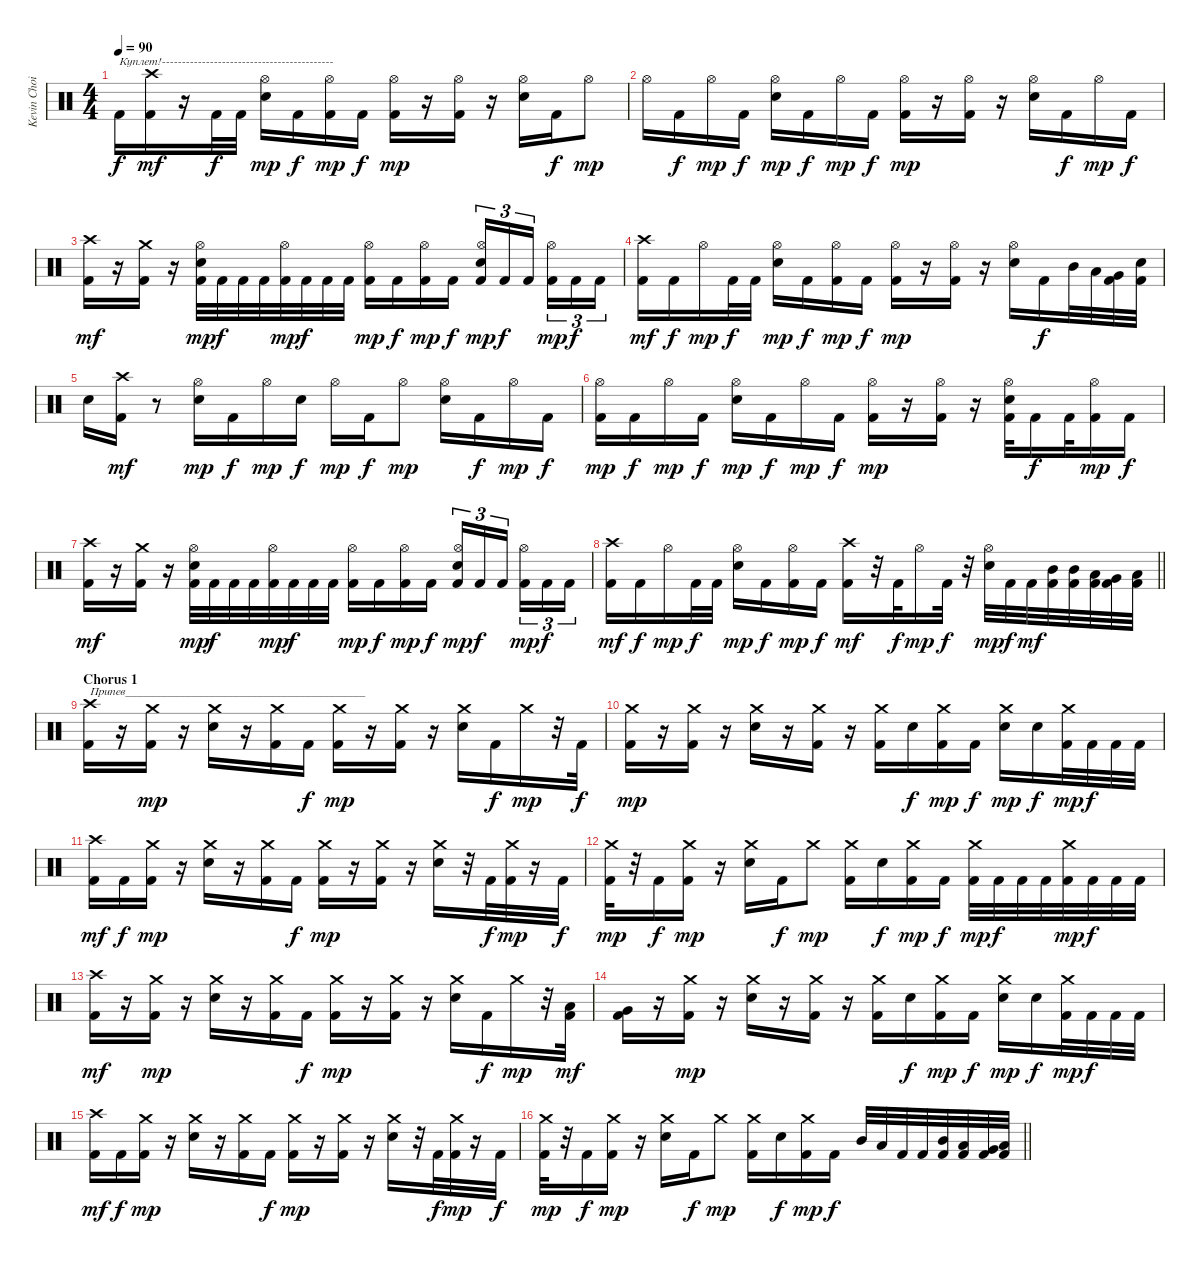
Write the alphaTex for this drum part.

\track ("Kevin Choiral" "Kevin Choi") {instrument percussion}
\staff
\articulation defaults
\ts (4 4)
\tempo 90
\clef neutral
\ks c "Kick (hit) 2".16{txt "Куплет!-------------------------------------------" dy f}
("Crash high (hit)" "Kick (hit) 2").16{dy mf} r.16 "Kick (hit) 2".32{dy f} "Kick (hit) 2".32 ("Hi-Hat (open)" "Electric Snare (hit)").16{dy mp} "Kick (hit) 2".16{dy f} ("Hi-Hat (open)" "Kick (hit) 2").16{dy mp} "Kick (hit) 2".16{dy f} ("Hi-Hat (open)" "Kick (hit) 2").16{dy mp} r.16 ("Hi-Hat (open)" "Kick (hit) 2").16 r.16 ("Hi-Hat (open)" "Electric Snare (hit)").16 "Kick (hit) 2".16{dy f} "Hi-Hat (open)".8{dy mp} |
"Hi-Hat (open)".16 "Kick (hit) 2".16{dy f} "Hi-Hat (open)".16{dy mp} "Kick (hit) 2".16{dy f} ("Hi-Hat (open)" "Electric Snare (hit)").16{dy mp} "Kick (hit) 2".16{dy f} "Hi-Hat (open)".16{dy mp} "Kick (hit) 2".16{dy f} ("Hi-Hat (open)" "Kick (hit) 2").16{dy mp} r.16 ("Hi-Hat (open)" "Kick (hit) 2").16 r.16 ("Hi-Hat (open)" "Electric Snare (hit)").16 "Kick (hit) 2".16{dy f} "Hi-Hat (open)".16{dy mp} "Kick (hit) 2".16{dy f} |
("Crash high (hit)" "Kick (hit) 2").16{dy mf} r.16 ("Crash medium (hit)" "Kick (hit) 2").16 r.16 ("Hi-Hat (open)" "Electric Snare (hit)" "Kick (hit) 2").32{dy mp} "Kick (hit) 2".32{dy f} "Kick (hit) 2".32 "Kick (hit) 2".32 ("Hi-Hat (open)" "Kick (hit) 2").32{dy mp} "Kick (hit) 2".32{dy f} "Kick (hit) 2".32 "Kick (hit) 2".32 ("Hi-Hat (open)" "Kick (hit) 2").16{dy mp} "Kick (hit) 2".16{dy f} ("Hi-Hat (open)" "Kick (hit) 2").16{dy mp} "Kick (hit) 2".16{dy f} ("Hi-Hat (open)" "Electric Snare (hit)" "Kick (hit) 2").16{tu (3 2) dy mp} "Kick (hit) 2".16{tu (3 2) dy f} "Kick (hit) 2".16{tu (3 2) beam splitsecondary} ("Hi-Hat (open)" "Kick (hit) 2").16{tu (3 2) dy mp} "Kick (hit) 2".16{tu (3 2) dy f} "Kick (hit) 2".16{tu (3 2)} |
("Crash high (hit)" "Kick (hit) 2").16{dy mf} "Kick (hit) 2".16{dy f} "Hi-Hat (open)".16{dy mp} "Kick (hit) 2".32{dy f} "Kick (hit) 2".32 ("Hi-Hat (open)" "Electric Snare (hit)").16{dy mp} "Kick (hit) 2".16{dy f} ("Hi-Hat (open)" "Kick (hit) 2").16{dy mp} "Kick (hit) 2".16{dy f} ("Hi-Hat (open)" "Kick (hit) 2").16{dy mp} r.16 ("Hi-Hat (open)" "Kick (hit) 2").16 r.16 ("Hi-Hat (open)" "Electric Snare (hit)").16 "Kick (hit) 2".16{dy f} "Mid Tom (hit)".32 "Low Tom (hit)".32 ("Very Low Tom (hit)" "Kick (hit) 2").32 ("Electric Snare (hit)" "Kick (hit) 2").32 |
"Electric Snare (hit)".16 ("Crash high (hit)" "Kick (hit) 2").16{dy mf} r.8 ("Hi-Hat (open)" "Electric Snare (hit)").16{dy mp} "Kick (hit) 2".16{dy f} "Hi-Hat (open)".16{dy mp} "Electric Snare (hit)".16{dy f} "Hi-Hat (open)".16{dy mp} "Kick (hit) 2".16{dy f} "Hi-Hat (open)".8{dy mp} ("Hi-Hat (open)" "Electric Snare (hit)").16 "Kick (hit) 2".16{dy f} "Hi-Hat (open)".16{dy mp} "Kick (hit) 2".16{dy f} |
("Hi-Hat (open)" "Kick (hit) 2").16{dy mp} "Kick (hit) 2".16{dy f} "Hi-Hat (open)".16{dy mp} "Kick (hit) 2".16{dy f} ("Hi-Hat (open)" "Electric Snare (hit)").16{dy mp} "Kick (hit) 2".16{dy f} "Hi-Hat (open)".16{dy mp} "Kick (hit) 2".16{dy f} ("Hi-Hat (open)" "Kick (hit) 2").16{dy mp} r.16 ("Hi-Hat (open)" "Kick (hit) 2").16 r.16 ("Hi-Hat (open)" "Electric Snare (hit)" "Kick (hit) 2").32 "Kick (hit) 2".16{dy f} "Kick (hit) 2".32 ("Hi-Hat (open)" "Kick (hit) 2").16{dy mp} "Kick (hit) 2".16{dy f} |
("Crash high (hit)" "Kick (hit) 2").16{dy mf} r.16 ("Crash medium (hit)" "Kick (hit) 2").16 r.16 ("Hi-Hat (open)" "Electric Snare (hit)" "Kick (hit) 2").32{dy mp} "Kick (hit) 2".32{dy f} "Kick (hit) 2".32 "Kick (hit) 2".32 ("Hi-Hat (open)" "Kick (hit) 2").32{dy mp} "Kick (hit) 2".32{dy f} "Kick (hit) 2".32 "Kick (hit) 2".32 ("Hi-Hat (open)" "Kick (hit) 2").16{dy mp} "Kick (hit) 2".16{dy f} ("Hi-Hat (open)" "Kick (hit) 2").16{dy mp} "Kick (hit) 2".16{dy f} ("Hi-Hat (open)" "Electric Snare (hit)" "Kick (hit) 2").16{tu (3 2) dy mp} "Kick (hit) 2".16{tu (3 2) dy f} "Kick (hit) 2".16{tu (3 2) beam splitsecondary} ("Hi-Hat (open)" "Kick (hit) 2").16{tu (3 2) dy mp} "Kick (hit) 2".16{tu (3 2) dy f} "Kick (hit) 2".16{tu (3 2)} |
\barLineRight lightlight
("Crash high (hit)" "Kick (hit) 2").16{dy mf} "Kick (hit) 2".16{dy f} "Hi-Hat (open)".16{dy mp} "Kick (hit) 2".32{dy f} "Kick (hit) 2".32 ("Hi-Hat (open)" "Electric Snare (hit)").16{dy mp} "Kick (hit) 2".16{dy f} ("Hi-Hat (open)" "Kick (hit) 2").16{dy mp} "Kick (hit) 2".16{dy f} ("Crash high (hit)" "Kick (hit) 2").16{dy mf} r.32 "Kick (hit) 2".32{dy f} "Hi-Hat (open)".16{dy mp} "Kick (hit) 2".32{dy f} r.32 ("Hi-Hat (open)" "Electric Snare (hit)").32{dy mp} "Kick (hit) 2".32{dy f} "Kick (hit) 2".32{dy mf} ("Mid Tom (hit)" "Kick (hit) 2").32 ("Mid Tom (hit)" "Kick (hit) 2").32 ("Low Tom (hit)" "Kick (hit) 2").32 ("Very Low Tom (hit)" "Kick (hit) 2").32 ("Low Floor Tom (hit)" "Kick (hit) 2").32 |
\section ("" "Chorus 1")
("Crash high (hit)" "Kick (hit) 2").16{txt "Припев________________________________________"} r.16 ("Crash medium (hit)" "Kick (hit) 2").16{dy mp} r.16 ("Crash medium (hit)" "Electric Snare (hit)").16 r.16 ("Crash medium (hit)" "Kick (hit) 2").16 "Kick (hit) 2".16{dy f} ("Crash medium (hit)" "Kick (hit) 2").16{dy mp} r.16 ("Crash medium (hit)" "Kick (hit) 2").16 r.16 ("Crash medium (hit)" "Electric Snare (hit)").16 "Kick (hit) 2".16{dy f} "Crash medium (hit)".16{dy mp} r.32 "Kick (hit) 2".32{dy f} |
("Crash medium (hit)" "Kick (hit) 2").16{dy mp} r.16 ("Crash medium (hit)" "Kick (hit) 2").16 r.16 ("Crash medium (hit)" "Electric Snare (hit)").16 r.16 ("Crash medium (hit)" "Kick (hit) 2").16 r.16 ("Crash medium (hit)" "Kick (hit) 2").16 "Electric Snare (hit)".16{dy f} ("Crash medium (hit)" "Kick (hit) 2").16{dy mp} "Kick (hit) 2".16{dy f} ("Crash medium (hit)" "Electric Snare (hit)").16{dy mp} "Electric Snare (hit)".16{dy f} ("Crash medium (hit)" "Kick (hit) 2").32{dy mp} "Kick (hit) 2".32{dy f} "Kick (hit) 2".32 "Kick (hit) 2".32 |
("Crash high (hit)" "Kick (hit) 2").16{dy mf} "Kick (hit) 2".16{dy f} ("Crash medium (hit)" "Kick (hit) 2").16{dy mp} r.16 ("Crash medium (hit)" "Electric Snare (hit)").16 r.16 ("Crash medium (hit)" "Kick (hit) 2").16 "Kick (hit) 2".16{dy f} ("Crash medium (hit)" "Kick (hit) 2").16{dy mp} r.16 ("Crash medium (hit)" "Kick (hit) 2").16 r.16 ("Crash medium (hit)" "Electric Snare (hit)").16 r.32 "Kick (hit) 2".32{dy f} ("Crash medium (hit)" "Kick (hit) 2").32{dy mp} r.16 "Kick (hit) 2".32{dy f} |
("Crash medium (hit)" "Kick (hit) 2").32{dy mp} r.32 "Kick (hit) 2".16{dy f} ("Crash medium (hit)" "Kick (hit) 2").16{dy mp} r.16 ("Crash medium (hit)" "Electric Snare (hit)").16 "Kick (hit) 2".16{dy f} "Crash medium (hit)".8{dy mp} ("Crash medium (hit)" "Kick (hit) 2").16 "Electric Snare (hit)".16{dy f} ("Crash medium (hit)" "Kick (hit) 2").16{dy mp} "Kick (hit) 2".16{dy f} ("Crash medium (hit)" "Kick (hit) 2").32{dy mp} "Kick (hit) 2".32{dy f} "Kick (hit) 2".32 "Kick (hit) 2".32 ("Crash medium (hit)" "Kick (hit) 2").32{dy mp} "Kick (hit) 2".32{dy f} "Kick (hit) 2".32 "Kick (hit) 2".32 |
("Crash high (hit)" "Kick (hit) 2").16{dy mf} r.16 ("Crash medium (hit)" "Kick (hit) 2").16{dy mp} r.16 ("Crash medium (hit)" "Electric Snare (hit)").16 r.16 ("Crash medium (hit)" "Kick (hit) 2").16 "Kick (hit) 2".16{dy f} ("Crash medium (hit)" "Kick (hit) 2").16{dy mp} r.16 ("Crash medium (hit)" "Kick (hit) 2").16 r.16 ("Crash medium (hit)" "Electric Snare (hit)").16 "Kick (hit) 2".16{dy f} "Crash medium (hit)".16{dy mp} r.32 ("Low Tom (hit)" "Kick (hit) 2").32{dy mf} |
("Very Low Tom (hit)" "Kick (hit) 2").16 r.16 ("Crash medium (hit)" "Kick (hit) 2").16{dy mp} r.16 ("Crash medium (hit)" "Electric Snare (hit)").16 r.16 ("Crash medium (hit)" "Kick (hit) 2").16 r.16 ("Crash medium (hit)" "Kick (hit) 2").16 "Electric Snare (hit)".16{dy f} ("Crash medium (hit)" "Kick (hit) 2").16{dy mp} "Kick (hit) 2".16{dy f} ("Crash medium (hit)" "Electric Snare (hit)").16{dy mp} "Electric Snare (hit)".16{dy f} ("Crash medium (hit)" "Kick (hit) 2").32{dy mp} "Kick (hit) 2".32{dy f} "Kick (hit) 2".32 "Kick (hit) 2".32 |
("Crash high (hit)" "Kick (hit) 2").16{dy mf} "Kick (hit) 2".16{dy f} ("Crash medium (hit)" "Kick (hit) 2").16{dy mp} r.16 ("Crash medium (hit)" "Electric Snare (hit)").16 r.16 ("Crash medium (hit)" "Kick (hit) 2").16 "Kick (hit) 2".16{dy f} ("Crash medium (hit)" "Kick (hit) 2").16{dy mp} r.16 ("Crash medium (hit)" "Kick (hit) 2").16 r.16 ("Crash medium (hit)" "Electric Snare (hit)").16 r.32 "Kick (hit) 2".32{dy f} ("Crash medium (hit)" "Kick (hit) 2").32{dy mp} r.16 "Kick (hit) 2".32{dy f} |
\barLineRight lightlight
("Crash medium (hit)" "Kick (hit) 2").32{dy mp} r.32 "Kick (hit) 2".16{dy f} ("Crash medium (hit)" "Kick (hit) 2").16{dy mp} r.16 ("Crash medium (hit)" "Electric Snare (hit)").16 "Kick (hit) 2".16{dy f} "Crash medium (hit)".8{dy mp} ("Crash medium (hit)" "Kick (hit) 2").16 "Electric Snare (hit)".16{dy f} ("Crash medium (hit)" "Kick (hit) 2").16{dy mp} "Kick (hit) 2".16{dy f} "Mid Tom (hit)".32 "Low Tom (hit)".32 "Kick (hit) 2".32 "Kick (hit) 2".32 ("Mid Tom (hit)" "Kick (hit) 2").32 ("Low Tom (hit)" "Kick (hit) 2").32 ("Very Low Tom (hit)" "Kick (hit) 2").32 ("Low Floor Tom (hit)" "Kick (hit) 2").32
